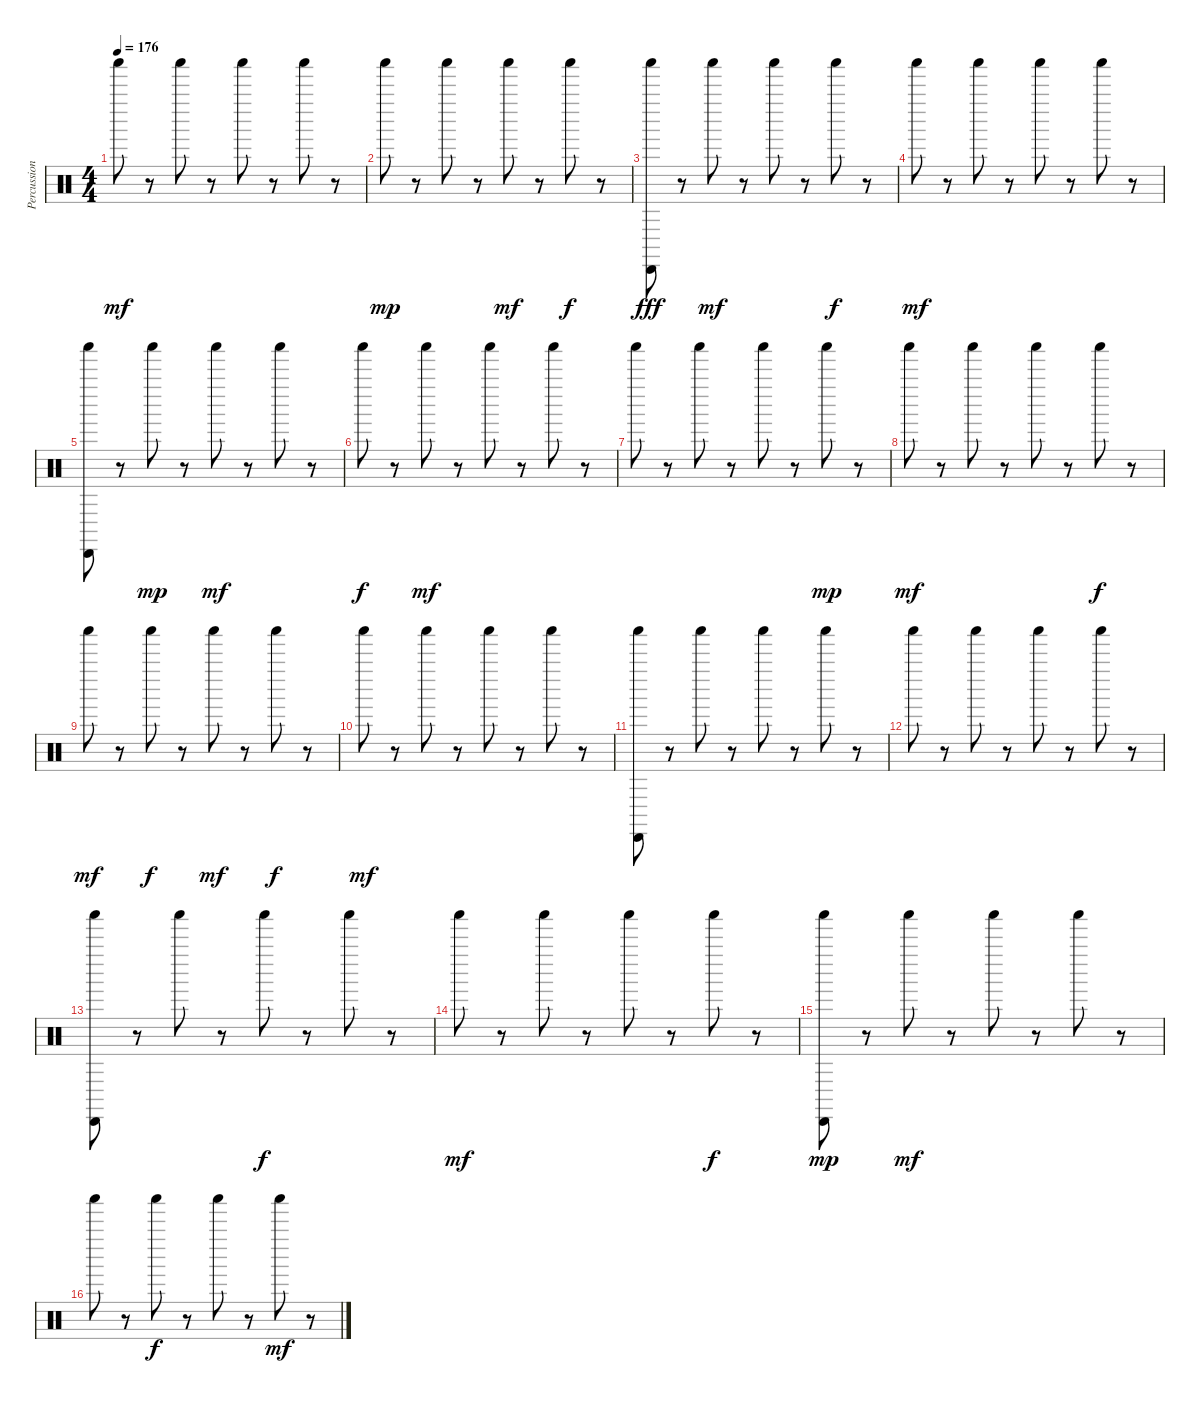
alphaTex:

\track ("Percussion" "Percussion") {instrument percussion}
\staff {score}
\articulation defaults
\ts (4 4)
\tempo 176
\clef neutral
\ks c "Shaker (hit)".8{dy mf}
r.8 "Shaker (hit)".8 r.8 "Shaker (hit)".8 r.8 "Shaker (hit)".8 r.8 |
"Shaker (hit)".8{dy mp} r.8 "Shaker (hit)".8 r.8 "Shaker (hit)".8{dy mf} r.8 "Shaker (hit)".8{dy f} r.8 |
("Cabasa (hit)" "Shaker (hit)").8{dy fff} r.8 "Shaker (hit)".8{dy mf} r.8 "Shaker (hit)".8 r.8 "Shaker (hit)".8{dy f} r.8 |
"Shaker (hit)".8{dy mf} r.8 "Shaker (hit)".8 r.8 "Shaker (hit)".8 r.8 "Shaker (hit)".8 r.8 |
("Cabasa (hit)" "Shaker (hit)").8 r.8 "Shaker (hit)".8{dy mp} r.8 "Shaker (hit)".8{dy mf} r.8 "Shaker (hit)".8 r.8 |
"Shaker (hit)".8{dy f} r.8 "Shaker (hit)".8{dy mf} r.8 "Shaker (hit)".8 r.8 "Shaker (hit)".8 r.8 |
"Shaker (hit)".8 r.8 "Shaker (hit)".8 r.8 "Shaker (hit)".8 r.8 "Shaker (hit)".8{dy mp} r.8 |
"Shaker (hit)".8{dy mf} r.8 "Shaker (hit)".8 r.8 "Shaker (hit)".8 r.8 "Shaker (hit)".8{dy f} r.8 |
"Shaker (hit)".8{dy mf} r.8 "Shaker (hit)".8{dy f} r.8 "Shaker (hit)".8{dy mf} r.8 "Shaker (hit)".8{dy f} r.8 |
"Shaker (hit)".8{dy mf} r.8 "Shaker (hit)".8 r.8 "Shaker (hit)".8 r.8 "Shaker (hit)".8 r.8 |
("Cabasa (hit)" "Shaker (hit)").8 r.8 "Shaker (hit)".8 r.8 "Shaker (hit)".8 r.8 "Shaker (hit)".8 r.8 |
"Shaker (hit)".8 r.8 "Shaker (hit)".8 r.8 "Shaker (hit)".8 r.8 "Shaker (hit)".8 r.8 |
("Cabasa (hit)" "Shaker (hit)").8 r.8 "Shaker (hit)".8 r.8 "Shaker (hit)".8{dy f} r.8 "Shaker (hit)".8 r.8 |
"Shaker (hit)".8{dy mf} r.8 "Shaker (hit)".8 r.8 "Shaker (hit)".8 r.8 "Shaker (hit)".8{dy f} r.8 |
("Cabasa (hit)" "Shaker (hit)").8{dy mp} r.8 "Shaker (hit)".8{dy mf} r.8 "Shaker (hit)".8 r.8 "Shaker (hit)".8 r.8 |
"Shaker (hit)".8 r.8 "Shaker (hit)".8{dy f} r.8 "Shaker (hit)".8 r.8 "Shaker (hit)".8{dy mf} r.8
